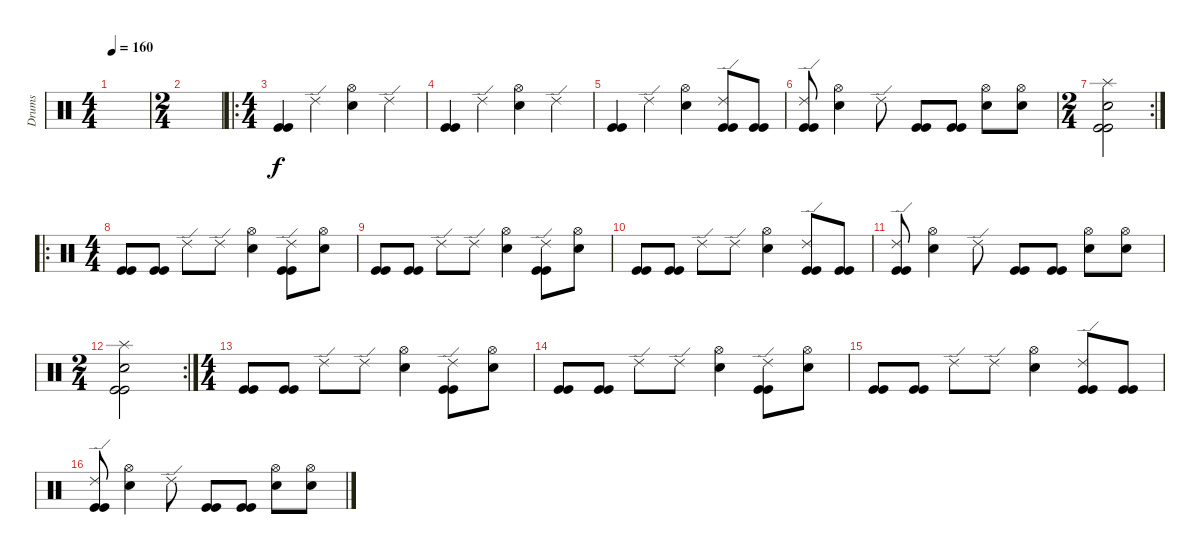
\track ("Drums" "Drums") {instrument percussion}
\staff {score}
\articulation defaults
\ts (4 4)
\tempo 160
\clef neutral
\ks c
|
\ts (2 4)
|
\ro
\ts (4 4)
("Kick (hit)" "Kick (hit)").4 "Ride (edge) 2".4 ("Hi-Hat (open)" "Snare (hit) 2").4 "Ride (edge) 2".4 |
("Kick (hit)" "Kick (hit)").4 "Ride (edge) 2".4 ("Hi-Hat (open)" "Snare (hit) 2").4 "Ride (edge) 2".4 |
("Kick (hit)" "Kick (hit)").4 "Ride (edge) 2".4 ("Hi-Hat (open)" "Snare (hit) 2").4 ("Ride (edge) 2" "Kick (hit)" "Kick (hit)").8 ("Kick (hit)" "Kick (hit)").8 |
("Ride (edge) 2" "Kick (hit)" "Kick (hit)").8 ("Hi-Hat (open)" "Snare (hit) 2").4 "Ride (edge) 2".8 ("Kick (hit)" "Kick (hit)").8 ("Kick (hit)" "Kick (hit)").8 ("Hi-Hat (open)" "Snare (hit) 2").8 ("Hi-Hat (open)" "Snare (hit) 2").8 |
\rc 2
\ts (2 4)
("Splash (hit)" "Snare (hit) 2" "Kick (hit)" "Kick (hit)").2 |
\ro
\ts (4 4)
("Kick (hit)" "Kick (hit)").8 ("Kick (hit)" "Kick (hit)").8 "Ride (edge) 2".8 "Ride (edge) 2".8 ("Hi-Hat (open)" "Snare (hit) 2").4 ("Ride (edge) 2" "Kick (hit)" "Kick (hit)").8 ("Hi-Hat (open)" "Snare (hit) 2").8 |
("Kick (hit)" "Kick (hit)").8 ("Kick (hit)" "Kick (hit)").8 "Ride (edge) 2".8 "Ride (edge) 2".8 ("Hi-Hat (open)" "Snare (hit) 2").4 ("Ride (edge) 2" "Kick (hit)" "Kick (hit)").8 ("Hi-Hat (open)" "Snare (hit) 2").8 |
("Kick (hit)" "Kick (hit)").8 ("Kick (hit)" "Kick (hit)").8 "Ride (edge) 2".8 "Ride (edge) 2".8 ("Hi-Hat (open)" "Snare (hit) 2").4 ("Ride (edge) 2" "Kick (hit)" "Kick (hit)").8 ("Kick (hit)" "Kick (hit)").8 |
("Ride (edge) 2" "Kick (hit)" "Kick (hit)").8 ("Hi-Hat (open)" "Snare (hit) 2").4 "Ride (edge) 2".8 ("Kick (hit)" "Kick (hit)").8 ("Kick (hit)" "Kick (hit)").8 ("Hi-Hat (open)" "Snare (hit) 2").8 ("Hi-Hat (open)" "Snare (hit) 2").8 |
\rc 2
\ts (2 4)
("Splash (hit)" "Snare (hit) 2" "Kick (hit)" "Kick (hit)").2 |
\ts (4 4)
("Kick (hit)" "Kick (hit)").8 ("Kick (hit)" "Kick (hit)").8 "Ride (edge) 2".8 "Ride (edge) 2".8 ("Hi-Hat (open)" "Snare (hit) 2").4 ("Ride (edge) 2" "Kick (hit)" "Kick (hit)").8 ("Hi-Hat (open)" "Snare (hit) 2").8 |
("Kick (hit)" "Kick (hit)").8 ("Kick (hit)" "Kick (hit)").8 "Ride (edge) 2".8 "Ride (edge) 2".8 ("Hi-Hat (open)" "Snare (hit) 2").4 ("Ride (edge) 2" "Kick (hit)" "Kick (hit)").8 ("Hi-Hat (open)" "Snare (hit) 2").8 |
("Kick (hit)" "Kick (hit)").8 ("Kick (hit)" "Kick (hit)").8 "Ride (edge) 2".8 "Ride (edge) 2".8 ("Hi-Hat (open)" "Snare (hit) 2").4 ("Ride (edge) 2" "Kick (hit)" "Kick (hit)").8 ("Kick (hit)" "Kick (hit)").8 |
("Ride (edge) 2" "Kick (hit)" "Kick (hit)").8 ("Hi-Hat (open)" "Snare (hit) 2").4 "Ride (edge) 2".8 ("Kick (hit)" "Kick (hit)").8 ("Kick (hit)" "Kick (hit)").8 ("Hi-Hat (open)" "Snare (hit) 2").8 ("Hi-Hat (open)" "Snare (hit) 2").8
